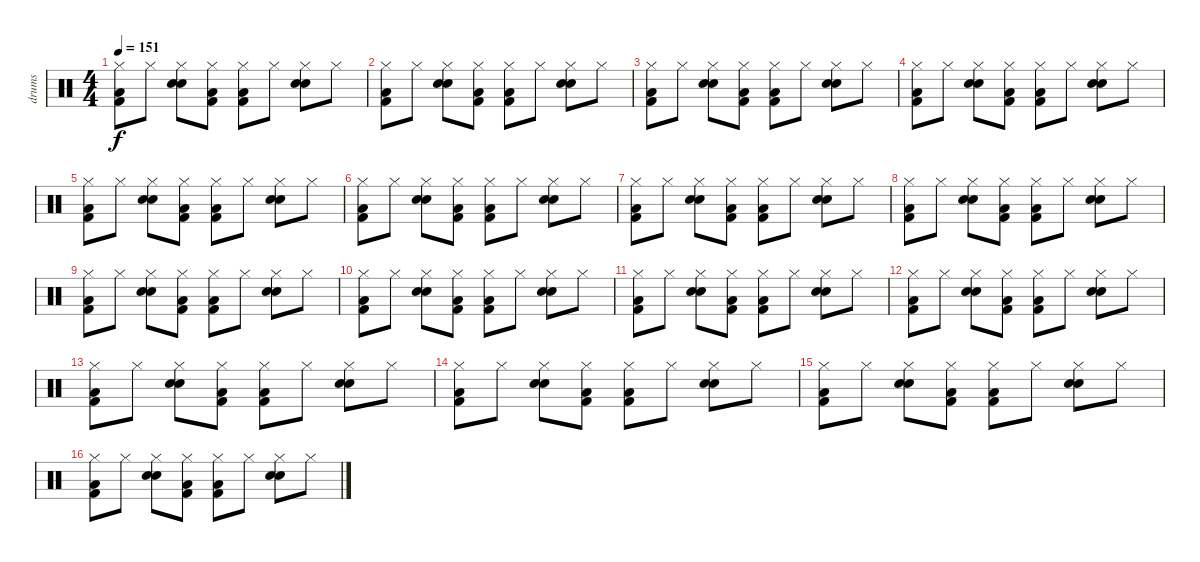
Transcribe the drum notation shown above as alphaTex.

\track ("drums" "drums") {instrument percussion}
\staff {score}
\articulation defaults
\ts (4 4)
\tempo 151
\clef neutral
\ks c
("Hi-Hat (closed)" "Low Floor Tom (hit)" "Kick (hit) 2").8{dy f} "Hi-Hat (closed)".8 ("Hi-Hat (closed)" "Snare (hit) 2" "Snare (hit) 2").8 ("Hi-Hat (closed)" "Low Floor Tom (hit)" "Kick (hit) 2").8 ("Hi-Hat (closed)" "Low Floor Tom (hit)" "Kick (hit) 2").8 "Hi-Hat (closed)".8 ("Hi-Hat (closed)" "Snare (hit) 2" "Snare (hit) 2").8 "Hi-Hat (closed)".8 |
("Hi-Hat (closed)" "Low Floor Tom (hit)" "Kick (hit) 2").8 "Hi-Hat (closed)".8 ("Hi-Hat (closed)" "Snare (hit) 2" "Snare (hit) 2").8 ("Hi-Hat (closed)" "Low Floor Tom (hit)" "Kick (hit) 2").8 ("Hi-Hat (closed)" "Low Floor Tom (hit)" "Kick (hit) 2").8 "Hi-Hat (closed)".8 ("Hi-Hat (closed)" "Snare (hit) 2" "Snare (hit) 2").8 "Hi-Hat (closed)".8 |
("Hi-Hat (closed)" "Low Floor Tom (hit)" "Kick (hit) 2").8 "Hi-Hat (closed)".8 ("Hi-Hat (closed)" "Snare (hit) 2" "Snare (hit) 2").8 ("Hi-Hat (closed)" "Low Floor Tom (hit)" "Kick (hit) 2").8 ("Hi-Hat (closed)" "Low Floor Tom (hit)" "Kick (hit) 2").8 "Hi-Hat (closed)".8 ("Hi-Hat (closed)" "Snare (hit) 2" "Snare (hit) 2").8 "Hi-Hat (closed)".8 |
("Hi-Hat (closed)" "Low Floor Tom (hit)" "Kick (hit) 2").8 "Hi-Hat (closed)".8 ("Hi-Hat (closed)" "Snare (hit) 2" "Snare (hit) 2").8 ("Hi-Hat (closed)" "Low Floor Tom (hit)" "Kick (hit) 2").8 ("Hi-Hat (closed)" "Low Floor Tom (hit)" "Kick (hit) 2").8 "Hi-Hat (closed)".8 ("Hi-Hat (closed)" "Snare (hit) 2" "Snare (hit) 2").8 "Hi-Hat (closed)".8 |
("Hi-Hat (closed)" "Low Floor Tom (hit)" "Kick (hit) 2").8 "Hi-Hat (closed)".8 ("Hi-Hat (closed)" "Snare (hit) 2" "Snare (hit) 2").8 ("Hi-Hat (closed)" "Low Floor Tom (hit)" "Kick (hit) 2").8 ("Hi-Hat (closed)" "Low Floor Tom (hit)" "Kick (hit) 2").8 "Hi-Hat (closed)".8 ("Hi-Hat (closed)" "Snare (hit) 2" "Snare (hit) 2").8 "Hi-Hat (closed)".8 |
("Hi-Hat (closed)" "Low Floor Tom (hit)" "Kick (hit) 2").8 "Hi-Hat (closed)".8 ("Hi-Hat (closed)" "Snare (hit) 2" "Snare (hit) 2").8 ("Hi-Hat (closed)" "Low Floor Tom (hit)" "Kick (hit) 2").8 ("Hi-Hat (closed)" "Low Floor Tom (hit)" "Kick (hit) 2").8 "Hi-Hat (closed)".8 ("Hi-Hat (closed)" "Snare (hit) 2" "Snare (hit) 2").8 "Hi-Hat (closed)".8 |
("Hi-Hat (closed)" "Low Floor Tom (hit)" "Kick (hit) 2").8 "Hi-Hat (closed)".8 ("Hi-Hat (closed)" "Snare (hit) 2" "Snare (hit) 2").8 ("Hi-Hat (closed)" "Low Floor Tom (hit)" "Kick (hit) 2").8 ("Hi-Hat (closed)" "Low Floor Tom (hit)" "Kick (hit) 2").8 "Hi-Hat (closed)".8 ("Hi-Hat (closed)" "Snare (hit) 2" "Snare (hit) 2").8 "Hi-Hat (closed)".8 |
("Hi-Hat (closed)" "Low Floor Tom (hit)" "Kick (hit) 2").8 "Hi-Hat (closed)".8 ("Hi-Hat (closed)" "Snare (hit) 2" "Snare (hit) 2").8 ("Hi-Hat (closed)" "Low Floor Tom (hit)" "Kick (hit) 2").8 ("Hi-Hat (closed)" "Low Floor Tom (hit)" "Kick (hit) 2").8 "Hi-Hat (closed)".8 ("Hi-Hat (closed)" "Snare (hit) 2" "Snare (hit) 2").8 "Hi-Hat (closed)".8 |
("Hi-Hat (closed)" "Low Floor Tom (hit)" "Kick (hit) 2").8 "Hi-Hat (closed)".8 ("Hi-Hat (closed)" "Snare (hit) 2" "Snare (hit) 2").8 ("Hi-Hat (closed)" "Low Floor Tom (hit)" "Kick (hit) 2").8 ("Hi-Hat (closed)" "Low Floor Tom (hit)" "Kick (hit) 2").8 "Hi-Hat (closed)".8 ("Hi-Hat (closed)" "Snare (hit) 2" "Snare (hit) 2").8 "Hi-Hat (closed)".8 |
("Hi-Hat (closed)" "Low Floor Tom (hit)" "Kick (hit) 2").8 "Hi-Hat (closed)".8 ("Hi-Hat (closed)" "Snare (hit) 2" "Snare (hit) 2").8 ("Hi-Hat (closed)" "Low Floor Tom (hit)" "Kick (hit) 2").8 ("Hi-Hat (closed)" "Low Floor Tom (hit)" "Kick (hit) 2").8 "Hi-Hat (closed)".8 ("Hi-Hat (closed)" "Snare (hit) 2" "Snare (hit) 2").8 "Hi-Hat (closed)".8 |
("Hi-Hat (closed)" "Low Floor Tom (hit)" "Kick (hit) 2").8 "Hi-Hat (closed)".8 ("Hi-Hat (closed)" "Snare (hit) 2" "Snare (hit) 2").8 ("Hi-Hat (closed)" "Low Floor Tom (hit)" "Kick (hit) 2").8 ("Hi-Hat (closed)" "Low Floor Tom (hit)" "Kick (hit) 2").8 "Hi-Hat (closed)".8 ("Hi-Hat (closed)" "Snare (hit) 2" "Snare (hit) 2").8 "Hi-Hat (closed)".8 |
("Hi-Hat (closed)" "Low Floor Tom (hit)" "Kick (hit) 2").8 "Hi-Hat (closed)".8 ("Hi-Hat (closed)" "Snare (hit) 2" "Snare (hit) 2").8 ("Hi-Hat (closed)" "Low Floor Tom (hit)" "Kick (hit) 2").8 ("Hi-Hat (closed)" "Low Floor Tom (hit)" "Kick (hit) 2").8 "Hi-Hat (closed)".8 ("Hi-Hat (closed)" "Snare (hit) 2" "Snare (hit) 2").8 "Hi-Hat (closed)".8 |
("Hi-Hat (closed)" "Low Floor Tom (hit)" "Kick (hit) 2").8 "Hi-Hat (closed)".8 ("Hi-Hat (closed)" "Snare (hit) 2" "Snare (hit) 2").8 ("Hi-Hat (closed)" "Low Floor Tom (hit)" "Kick (hit) 2").8 ("Hi-Hat (closed)" "Low Floor Tom (hit)" "Kick (hit) 2").8 "Hi-Hat (closed)".8 ("Hi-Hat (closed)" "Snare (hit) 2" "Snare (hit) 2").8 "Hi-Hat (closed)".8 |
("Hi-Hat (closed)" "Low Floor Tom (hit)" "Kick (hit) 2").8 "Hi-Hat (closed)".8 ("Hi-Hat (closed)" "Snare (hit) 2" "Snare (hit) 2").8 ("Hi-Hat (closed)" "Low Floor Tom (hit)" "Kick (hit) 2").8 ("Hi-Hat (closed)" "Low Floor Tom (hit)" "Kick (hit) 2").8 "Hi-Hat (closed)".8 ("Hi-Hat (closed)" "Snare (hit) 2" "Snare (hit) 2").8 "Hi-Hat (closed)".8 |
("Hi-Hat (closed)" "Low Floor Tom (hit)" "Kick (hit) 2").8 "Hi-Hat (closed)".8 ("Hi-Hat (closed)" "Snare (hit) 2" "Snare (hit) 2").8 ("Hi-Hat (closed)" "Low Floor Tom (hit)" "Kick (hit) 2").8 ("Hi-Hat (closed)" "Low Floor Tom (hit)" "Kick (hit) 2").8 "Hi-Hat (closed)".8 ("Hi-Hat (closed)" "Snare (hit) 2" "Snare (hit) 2").8 "Hi-Hat (closed)".8 |
("Hi-Hat (closed)" "Low Floor Tom (hit)" "Kick (hit) 2").8 "Hi-Hat (closed)".8 ("Hi-Hat (closed)" "Snare (hit) 2" "Snare (hit) 2").8 ("Hi-Hat (closed)" "Low Floor Tom (hit)" "Kick (hit) 2").8 ("Hi-Hat (closed)" "Low Floor Tom (hit)" "Kick (hit) 2").8 "Hi-Hat (closed)".8 ("Hi-Hat (closed)" "Snare (hit) 2" "Snare (hit) 2").8 "Hi-Hat (closed)".8
